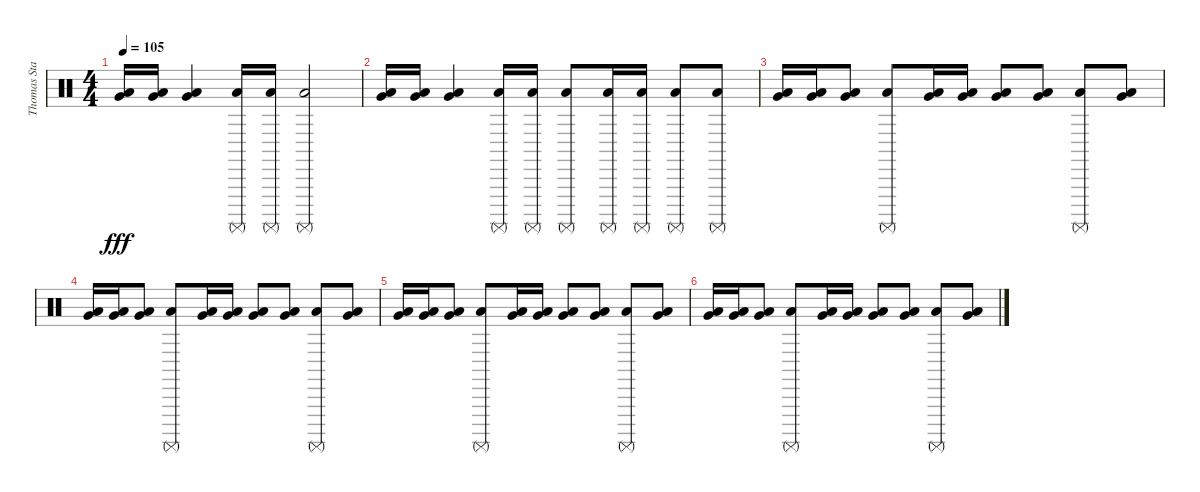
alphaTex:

\track ("Thomas Stauch" "Thomas Sta") {instrument percussion}
\staff {score}
\articulation defaults
\ts (4 4)
\tempo 105
\clef neutral
\ks c
("Very Low Tom (hit)" "Low Floor Tom (hit)").16{dy fff volume 6} ("Very Low Tom (hit)" "Low Floor Tom (hit)").16 ("Very Low Tom (hit)" "Low Floor Tom (hit)").4 ("Surdo (mute)" "Low Floor Tom (hit)").16 ("Surdo (mute)" "Low Floor Tom (hit)").16 ("Surdo (mute)" "Low Floor Tom (hit)").2 |
("Very Low Tom (hit)" "Low Floor Tom (hit)").16{volume 5} ("Very Low Tom (hit)" "Low Floor Tom (hit)").16 ("Very Low Tom (hit)" "Low Floor Tom (hit)").4 ("Surdo (mute)" "Low Floor Tom (hit)").16 ("Surdo (mute)" "Low Floor Tom (hit)").16 ("Surdo (mute)" "Low Floor Tom (hit)").8 ("Surdo (mute)" "Low Floor Tom (hit)").16 ("Surdo (mute)" "Low Floor Tom (hit)").16 ("Surdo (mute)" "Low Floor Tom (hit)").8 ("Surdo (mute)" "Low Floor Tom (hit)").8 |
("Very Low Tom (hit)" "Low Floor Tom (hit)").16{volume 4} ("Very Low Tom (hit)" "Low Floor Tom (hit)").16 ("Very Low Tom (hit)" "Low Floor Tom (hit)").8 ("Surdo (mute)" "Low Floor Tom (hit)").8 ("Very Low Tom (hit)" "Low Floor Tom (hit)").16 ("Very Low Tom (hit)" "Low Floor Tom (hit)").16 ("Very Low Tom (hit)" "Low Floor Tom (hit)").8 ("Very Low Tom (hit)" "Low Floor Tom (hit)").8 ("Surdo (mute)" "Low Floor Tom (hit)").8 ("Very Low Tom (hit)" "Low Floor Tom (hit)").8 |
("Very Low Tom (hit)" "Low Floor Tom (hit)").16{volume 3} ("Very Low Tom (hit)" "Low Floor Tom (hit)").16 ("Very Low Tom (hit)" "Low Floor Tom (hit)").8 ("Surdo (mute)" "Low Floor Tom (hit)").8 ("Very Low Tom (hit)" "Low Floor Tom (hit)").16 ("Very Low Tom (hit)" "Low Floor Tom (hit)").16 ("Very Low Tom (hit)" "Low Floor Tom (hit)").8 ("Very Low Tom (hit)" "Low Floor Tom (hit)").8 ("Surdo (mute)" "Low Floor Tom (hit)").8 ("Very Low Tom (hit)" "Low Floor Tom (hit)").8 |
("Very Low Tom (hit)" "Low Floor Tom (hit)").16{volume 2} ("Very Low Tom (hit)" "Low Floor Tom (hit)").16 ("Very Low Tom (hit)" "Low Floor Tom (hit)").8 ("Surdo (mute)" "Low Floor Tom (hit)").8 ("Very Low Tom (hit)" "Low Floor Tom (hit)").16 ("Very Low Tom (hit)" "Low Floor Tom (hit)").16 ("Very Low Tom (hit)" "Low Floor Tom (hit)").8 ("Very Low Tom (hit)" "Low Floor Tom (hit)").8 ("Surdo (mute)" "Low Floor Tom (hit)").8 ("Very Low Tom (hit)" "Low Floor Tom (hit)").8 |
("Very Low Tom (hit)" "Low Floor Tom (hit)").16 ("Very Low Tom (hit)" "Low Floor Tom (hit)").16 ("Very Low Tom (hit)" "Low Floor Tom (hit)").8 ("Surdo (mute)" "Low Floor Tom (hit)").8 ("Very Low Tom (hit)" "Low Floor Tom (hit)").16 ("Very Low Tom (hit)" "Low Floor Tom (hit)").16 ("Very Low Tom (hit)" "Low Floor Tom (hit)").8 ("Very Low Tom (hit)" "Low Floor Tom (hit)").8 ("Surdo (mute)" "Low Floor Tom (hit)").8 ("Very Low Tom (hit)" "Low Floor Tom (hit)").8
